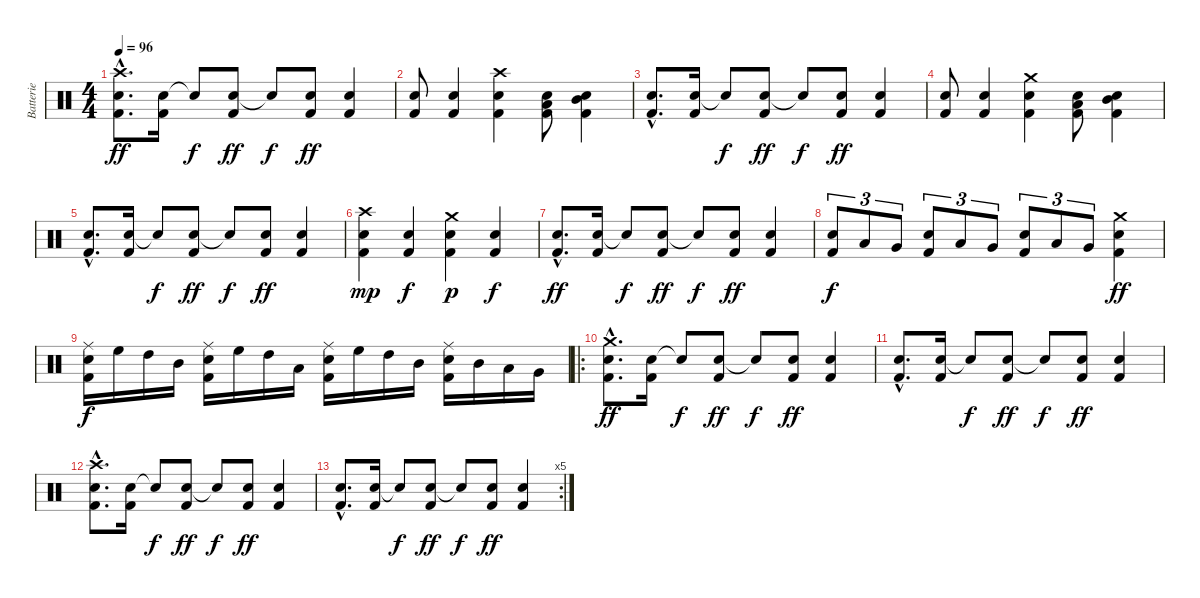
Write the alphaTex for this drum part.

\track ("Batterie" "Batterie") {instrument percussion}
\staff {score}
\articulation defaults
\ts (4 4)
\tempo 96
\clef neutral
\ks c
("Crash high (hit)"{hac} "Snare (hit) 2"{hac} "Kick (hit) 2"{hac}).8{d dy ff} ("Snare (hit) 2" "Kick (hit) 2").16 "Snare (hit)"{t}.8{dy f} ("Snare (hit) 2" "Kick (hit) 2").8{dy ff} "Snare (hit)"{t}.8{dy f} ("Snare (hit) 2" "Kick (hit) 2").8{dy ff} ("Snare (hit) 2" "Kick (hit) 2").4 |
("Snare (hit) 2" "Kick (hit) 2").8 ("Snare (hit) 2" "Kick (hit) 2").4 ("Crash high (hit)" "Snare (hit) 2" "Kick (hit) 2").4 ("Low Tom (hit)" "Snare (hit) 2" "Kick (hit) 2").8 ("Mid Tom (hit)" "Snare (hit) 2" "Kick (hit) 2").4 |
("Snare (hit) 2"{hac} "Kick (hit) 2"{hac}).8{d} ("Snare (hit) 2" "Kick (hit) 2").16 "Snare (hit)"{t}.8{dy f} ("Snare (hit) 2" "Kick (hit) 2").8{dy ff} "Snare (hit)"{t}.8{dy f} ("Snare (hit) 2" "Kick (hit) 2").8{dy ff} ("Snare (hit) 2" "Kick (hit) 2").4 |
("Snare (hit) 2" "Kick (hit) 2").8 ("Snare (hit) 2" "Kick (hit) 2").4 ("Crash medium (hit)" "Snare (hit) 2" "Kick (hit) 2").4 ("Low Tom (hit)" "Snare (hit) 2" "Kick (hit) 2").8 ("Mid Tom (hit)" "Snare (hit) 2" "Kick (hit) 2").4 |
("Snare (hit) 2"{hac} "Kick (hit) 2"{hac}).8{d} ("Snare (hit) 2" "Kick (hit) 2").16 "Snare (hit)"{t}.8{dy f} ("Snare (hit) 2" "Kick (hit) 2").8{dy ff} "Snare (hit)"{t}.8{dy f} ("Snare (hit) 2" "Kick (hit) 2").8{dy ff} ("Snare (hit) 2" "Kick (hit) 2").4 |
("Crash high (hit)" "Snare (hit) 2" "Kick (hit) 2").4{dy mp} ("Snare (hit) 2" "Kick (hit) 2").4{dy f} ("Crash medium (hit)" "Snare (hit) 2" "Kick (hit) 2").4{dy p} ("Snare (hit) 2" "Kick (hit) 2").4{dy f} |
("Snare (hit) 2"{hac} "Kick (hit) 2"{hac}).8{d dy ff} ("Snare (hit) 2" "Kick (hit) 2").16 "Snare (hit)"{t}.8{dy f} ("Snare (hit) 2" "Kick (hit) 2").8{dy ff} "Snare (hit)"{t}.8{dy f} ("Snare (hit) 2" "Kick (hit) 2").8{dy ff} ("Snare (hit) 2" "Kick (hit) 2").4 |
("Snare (hit) 2" "Kick (hit) 2").8{tu (3 2) dy f} "Low Tom (hit)".8{tu (3 2)} "Very Low Tom (hit)".8{tu (3 2)} ("Snare (hit) 2" "Kick (hit) 2").8{tu (3 2)} "Low Tom (hit)".8{tu (3 2)} "Very Low Tom (hit)".8{tu (3 2)} ("Snare (hit) 2" "Kick (hit) 2").8{tu (3 2)} "Low Tom (hit)".8{tu (3 2)} "Very Low Tom (hit)".8{tu (3 2)} ("Crash medium (hit)" "Snare (hit) 2" "Kick (hit) 2").4{dy ff} |
("Ride (middle)" "Snare (hit) 2" "Kick (hit) 2").16{dy f} "High Floor Tom (hit)".16 "High Tom (hit)".16 "Mid Tom (hit)".16 ("Ride (middle)" "Snare (hit) 2" "Kick (hit) 2").16 "High Floor Tom (hit)".16 "High Tom (hit)".16 "Low Tom (hit)".16 ("Ride (middle)" "Snare (hit) 2" "Kick (hit) 2").16 "High Floor Tom (hit)".16 "High Tom (hit)".16 "Mid Tom (hit)".16 ("Ride (middle)" "Snare (hit) 2" "Kick (hit) 2").16 "Mid Tom (hit)".16 "Low Tom (hit)".16 "Very Low Tom (hit)".16 |
\ro
("Crash medium (hit)"{hac} "Snare (hit) 2"{hac} "Kick (hit) 2"{hac}).8{d dy ff} ("Snare (hit) 2" "Kick (hit) 2").16 "Snare (hit)"{t}.8{dy f} ("Snare (hit) 2" "Kick (hit) 2").8{dy ff} "Snare (hit)"{t}.8{dy f} ("Snare (hit) 2" "Kick (hit) 2").8{dy ff} ("Snare (hit) 2" "Kick (hit) 2").4 |
("Snare (hit) 2"{hac} "Kick (hit) 2"{hac}).8{d} ("Snare (hit) 2" "Kick (hit) 2").16 "Snare (hit)"{t}.8{dy f} ("Snare (hit) 2" "Kick (hit) 2").8{dy ff} "Snare (hit)"{t}.8{dy f} ("Snare (hit) 2" "Kick (hit) 2").8{dy ff} ("Snare (hit) 2" "Kick (hit) 2").4 |
("Crash high (hit)"{hac} "Snare (hit) 2"{hac} "Kick (hit) 2"{hac}).8{d} ("Snare (hit) 2" "Kick (hit) 2").16 "Snare (hit)"{t}.8{dy f} ("Snare (hit) 2" "Kick (hit) 2").8{dy ff} "Snare (hit)"{t}.8{dy f} ("Snare (hit) 2" "Kick (hit) 2").8{dy ff} ("Snare (hit) 2" "Kick (hit) 2").4 |
\rc 5
("Snare (hit) 2"{hac} "Kick (hit) 2"{hac}).8{d} ("Snare (hit) 2" "Kick (hit) 2").16 "Snare (hit)"{t}.8{dy f} ("Snare (hit) 2" "Kick (hit) 2").8{dy ff} "Snare (hit)"{t}.8{dy f} ("Snare (hit) 2" "Kick (hit) 2").8{dy ff} ("Snare (hit) 2" "Kick (hit) 2").4
